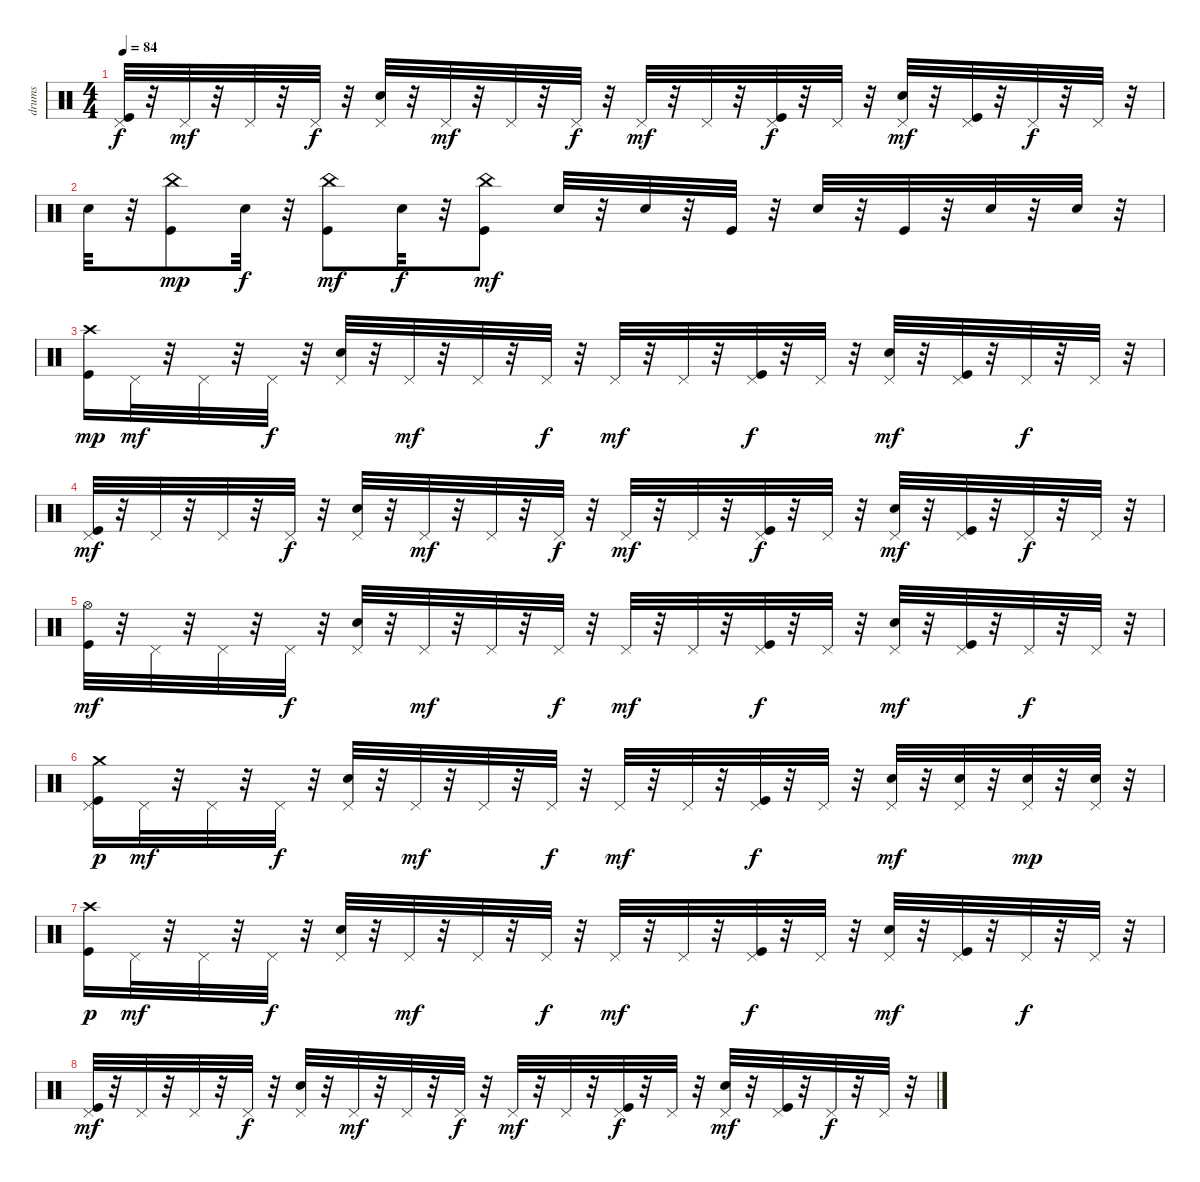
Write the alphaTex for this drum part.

\track ("drums" "drums") {instrument percussion}
\staff {score}
\articulation defaults
\ts (4 4)
\tempo 84
\clef neutral
\ks c
("Kick (hit)" "Pedal Hi-Hat (hit)").32{dy f} r.32 "Pedal Hi-Hat (hit)".32{dy mf} r.32 "Pedal Hi-Hat (hit)".32 r.32 "Pedal Hi-Hat (hit)".32{dy f} r.32 ("Snare (hit) 2" "Pedal Hi-Hat (hit)").32 r.32 "Pedal Hi-Hat (hit)".32{dy mf} r.32 "Pedal Hi-Hat (hit)".32 r.32 "Pedal Hi-Hat (hit)".32{dy f} r.32 "Pedal Hi-Hat (hit)".32{dy mf} r.32 "Pedal Hi-Hat (hit)".32 r.32 ("Kick (hit)" "Pedal Hi-Hat (hit)").32{dy f} r.32 "Pedal Hi-Hat (hit)".32 r.32 ("Snare (hit) 2" "Pedal Hi-Hat (hit)").32{dy mf} r.32 ("Kick (hit)" "Pedal Hi-Hat (hit)").32 r.32 "Pedal Hi-Hat (hit)".32{dy f} r.32 "Pedal Hi-Hat (hit)".32 r.32 |
"Snare (hit) 2".32 r.32 ("Kick (hit)" "China (hit)").8{dy mp} "Snare (hit) 2".32{dy f} r.32 ("Kick (hit)" "China (hit)").8{dy mf} "Snare (hit) 2".32{dy f} r.32 ("Kick (hit)" "China (hit)").8{dy mf} "Snare (hit) 2".32 r.32 "Snare (hit) 2".32 r.32 "Kick (hit)".32 r.32 "Snare (hit) 2".32 r.32 "Kick (hit)".32 r.32 "Snare (hit) 2".32 r.32 "Snare (hit) 2".32 r.32 |
("Kick (hit)" "Crash high (hit)").16{dy mp} "Pedal Hi-Hat (hit)".32{dy mf} r.32 "Pedal Hi-Hat (hit)".32 r.32 "Pedal Hi-Hat (hit)".32{dy f} r.32 ("Snare (hit) 2" "Pedal Hi-Hat (hit)").32 r.32 "Pedal Hi-Hat (hit)".32{dy mf} r.32 "Pedal Hi-Hat (hit)".32 r.32 "Pedal Hi-Hat (hit)".32{dy f} r.32 "Pedal Hi-Hat (hit)".32{dy mf} r.32 "Pedal Hi-Hat (hit)".32 r.32 ("Kick (hit)" "Pedal Hi-Hat (hit)").32{dy f} r.32 "Pedal Hi-Hat (hit)".32 r.32 ("Snare (hit) 2" "Pedal Hi-Hat (hit)").32{dy mf} r.32 ("Kick (hit)" "Pedal Hi-Hat (hit)").32 r.32 "Pedal Hi-Hat (hit)".32{dy f} r.32 "Pedal Hi-Hat (hit)".32 r.32 |
("Kick (hit)" "Pedal Hi-Hat (hit)").32{dy mf} r.32 "Pedal Hi-Hat (hit)".32 r.32 "Pedal Hi-Hat (hit)".32 r.32 "Pedal Hi-Hat (hit)".32{dy f} r.32 ("Snare (hit) 2" "Pedal Hi-Hat (hit)").32 r.32 "Pedal Hi-Hat (hit)".32{dy mf} r.32 "Pedal Hi-Hat (hit)".32 r.32 "Pedal Hi-Hat (hit)".32{dy f} r.32 "Pedal Hi-Hat (hit)".32{dy mf} r.32 "Pedal Hi-Hat (hit)".32 r.32 ("Kick (hit)" "Pedal Hi-Hat (hit)").32{dy f} r.32 "Pedal Hi-Hat (hit)".32 r.32 ("Snare (hit) 2" "Pedal Hi-Hat (hit)").32{dy mf} r.32 ("Kick (hit)" "Pedal Hi-Hat (hit)").32 r.32 "Pedal Hi-Hat (hit)".32{dy f} r.32 "Pedal Hi-Hat (hit)".32 r.32 |
("Kick (hit)" "Hi-Hat (open)").32{dy mf} r.32 "Pedal Hi-Hat (hit)".32 r.32 "Pedal Hi-Hat (hit)".32 r.32 "Pedal Hi-Hat (hit)".32{dy f} r.32 ("Snare (hit) 2" "Pedal Hi-Hat (hit)").32 r.32 "Pedal Hi-Hat (hit)".32{dy mf} r.32 "Pedal Hi-Hat (hit)".32 r.32 "Pedal Hi-Hat (hit)".32{dy f} r.32 "Pedal Hi-Hat (hit)".32{dy mf} r.32 "Pedal Hi-Hat (hit)".32 r.32 ("Kick (hit)" "Pedal Hi-Hat (hit)").32{dy f} r.32 "Pedal Hi-Hat (hit)".32 r.32 ("Snare (hit) 2" "Pedal Hi-Hat (hit)").32{dy mf} r.32 ("Kick (hit)" "Pedal Hi-Hat (hit)").32 r.32 "Pedal Hi-Hat (hit)".32{dy f} r.32 "Pedal Hi-Hat (hit)".32 r.32 |
("Kick (hit)" "Pedal Hi-Hat (hit)" "Crash medium (hit)").16{dy p} "Pedal Hi-Hat (hit)".32{dy mf} r.32 "Pedal Hi-Hat (hit)".32 r.32 "Pedal Hi-Hat (hit)".32{dy f} r.32 ("Snare (hit) 2" "Pedal Hi-Hat (hit)").32 r.32 "Pedal Hi-Hat (hit)".32{dy mf} r.32 "Pedal Hi-Hat (hit)".32 r.32 "Pedal Hi-Hat (hit)".32{dy f} r.32 "Pedal Hi-Hat (hit)".32{dy mf} r.32 "Pedal Hi-Hat (hit)".32 r.32 ("Kick (hit)" "Pedal Hi-Hat (hit)").32{dy f} r.32 "Pedal Hi-Hat (hit)".32 r.32 ("Snare (hit) 2" "Pedal Hi-Hat (hit)").32{dy mf} r.32 ("Snare (hit) 2" "Pedal Hi-Hat (hit)").32 r.32 ("Snare (hit) 2" "Pedal Hi-Hat (hit)").32{dy mp} r.32 ("Snare (hit) 2" "Pedal Hi-Hat (hit)").32 r.32 |
("Kick (hit)" "Crash high (hit)").16{dy p} "Pedal Hi-Hat (hit)".32{dy mf} r.32 "Pedal Hi-Hat (hit)".32 r.32 "Pedal Hi-Hat (hit)".32{dy f} r.32 ("Snare (hit) 2" "Pedal Hi-Hat (hit)").32 r.32 "Pedal Hi-Hat (hit)".32{dy mf} r.32 "Pedal Hi-Hat (hit)".32 r.32 "Pedal Hi-Hat (hit)".32{dy f} r.32 "Pedal Hi-Hat (hit)".32{dy mf} r.32 "Pedal Hi-Hat (hit)".32 r.32 ("Kick (hit)" "Pedal Hi-Hat (hit)").32{dy f} r.32 "Pedal Hi-Hat (hit)".32 r.32 ("Snare (hit) 2" "Pedal Hi-Hat (hit)").32{dy mf} r.32 ("Kick (hit)" "Pedal Hi-Hat (hit)").32 r.32 "Pedal Hi-Hat (hit)".32{dy f} r.32 "Pedal Hi-Hat (hit)".32 r.32 |
("Kick (hit)" "Pedal Hi-Hat (hit)").32{dy mf} r.32 "Pedal Hi-Hat (hit)".32 r.32 "Pedal Hi-Hat (hit)".32 r.32 "Pedal Hi-Hat (hit)".32{dy f} r.32 ("Snare (hit) 2" "Pedal Hi-Hat (hit)").32 r.32 "Pedal Hi-Hat (hit)".32{dy mf} r.32 "Pedal Hi-Hat (hit)".32 r.32 "Pedal Hi-Hat (hit)".32{dy f} r.32 "Pedal Hi-Hat (hit)".32{dy mf} r.32 "Pedal Hi-Hat (hit)".32 r.32 ("Kick (hit)" "Pedal Hi-Hat (hit)").32{dy f} r.32 "Pedal Hi-Hat (hit)".32 r.32 ("Snare (hit) 2" "Pedal Hi-Hat (hit)").32{dy mf} r.32 ("Kick (hit)" "Pedal Hi-Hat (hit)").32 r.32 "Pedal Hi-Hat (hit)".32{dy f} r.32 "Pedal Hi-Hat (hit)".32 r.32
